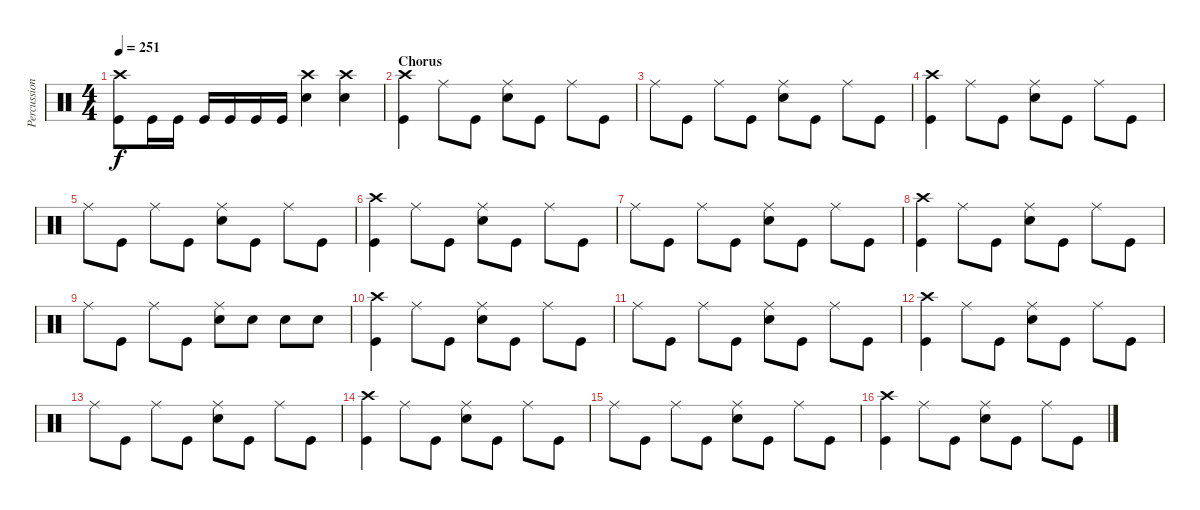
\track ("Percussion" "Percussion") {instrument percussion}
\staff {score}
\articulation defaults
\ts (4 4)
\tempo 251
\clef neutral
\ks c
("Crash high (hit)" "Kick (hit)").8{dy f} "Kick (hit)".16 "Kick (hit)".16 "Kick (hit)".16 "Kick (hit)".16 "Kick (hit)".16 "Kick (hit)".16 ("Crash high (hit)" "Electric Snare (hit)").4 ("Crash high (hit)" "Electric Snare (hit)").4 |
\section ("" "Chorus")
("Crash high (hit)" "Kick (hit)").4 "Ride (middle)".8 "Kick (hit)".8 ("Ride (middle)" "Electric Snare (hit)").8 "Kick (hit)".8 "Ride (middle)".8 "Kick (hit)".8 |
"Ride (middle)".8 "Kick (hit)".8 "Ride (middle)".8 "Kick (hit)".8 ("Ride (middle)" "Electric Snare (hit)").8 "Kick (hit)".8 "Ride (middle)".8 "Kick (hit)".8 |
("Crash high (hit)" "Kick (hit)").4 "Ride (middle)".8 "Kick (hit)".8 ("Ride (middle)" "Electric Snare (hit)").8 "Kick (hit)".8 "Ride (middle)".8 "Kick (hit)".8 |
"Ride (middle)".8 "Kick (hit)".8 "Ride (middle)".8 "Kick (hit)".8 ("Ride (middle)" "Electric Snare (hit)").8 "Kick (hit)".8 "Ride (middle)".8 "Kick (hit)".8 |
("Crash high (hit)" "Kick (hit)").4 "Ride (middle)".8 "Kick (hit)".8 ("Ride (middle)" "Electric Snare (hit)").8 "Kick (hit)".8 "Ride (middle)".8 "Kick (hit)".8 |
"Ride (middle)".8 "Kick (hit)".8 "Ride (middle)".8 "Kick (hit)".8 ("Ride (middle)" "Electric Snare (hit)").8 "Kick (hit)".8 "Ride (middle)".8 "Kick (hit)".8 |
("Crash high (hit)" "Kick (hit)").4 "Ride (middle)".8 "Kick (hit)".8 ("Ride (middle)" "Electric Snare (hit)").8 "Kick (hit)".8 "Ride (middle)".8 "Kick (hit)".8 |
"Ride (middle)".8 "Kick (hit)".8 "Ride (middle)".8 "Kick (hit)".8 ("Ride (middle)" "Electric Snare (hit)").8 "Electric Snare (hit)".8 "Electric Snare (hit)".8 "Electric Snare (hit)".8 |
("Crash high (hit)" "Kick (hit)").4 "Ride (middle)".8 "Kick (hit)".8 ("Ride (middle)" "Electric Snare (hit)").8 "Kick (hit)".8 "Ride (middle)".8 "Kick (hit)".8 |
"Ride (middle)".8 "Kick (hit)".8 "Ride (middle)".8 "Kick (hit)".8 ("Ride (middle)" "Electric Snare (hit)").8 "Kick (hit)".8 "Ride (middle)".8 "Kick (hit)".8 |
("Crash high (hit)" "Kick (hit)").4 "Ride (middle)".8 "Kick (hit)".8 ("Ride (middle)" "Electric Snare (hit)").8 "Kick (hit)".8 "Ride (middle)".8 "Kick (hit)".8 |
"Ride (middle)".8 "Kick (hit)".8 "Ride (middle)".8 "Kick (hit)".8 ("Ride (middle)" "Electric Snare (hit)").8 "Kick (hit)".8 "Ride (middle)".8 "Kick (hit)".8 |
("Crash high (hit)" "Kick (hit)").4 "Ride (middle)".8 "Kick (hit)".8 ("Ride (middle)" "Electric Snare (hit)").8 "Kick (hit)".8 "Ride (middle)".8 "Kick (hit)".8 |
"Ride (middle)".8 "Kick (hit)".8 "Ride (middle)".8 "Kick (hit)".8 ("Ride (middle)" "Electric Snare (hit)").8 "Kick (hit)".8 "Ride (middle)".8 "Kick (hit)".8 |
("Crash high (hit)" "Kick (hit)").4 "Ride (middle)".8 "Kick (hit)".8 ("Ride (middle)" "Electric Snare (hit)").8 "Kick (hit)".8 "Ride (middle)".8 "Kick (hit)".8
